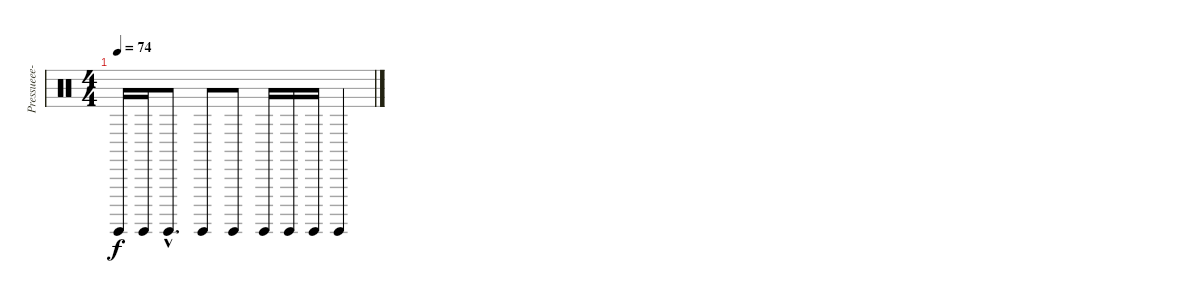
\track ("" "Pressueee-") {instrument percussion}
\staff {score}
\articulation defaults
\ts (4 4)
\tempo 74
\clef neutral
\ks c "Surdo (hit)".16{dy f} "Surdo (hit)".16 "Surdo (hit)"{hac}.8{d} "Surdo (hit)".8 "Surdo (hit)".8 "Surdo (hit)".16 "Surdo (hit)".16 "Surdo (hit)".16 "Surdo (hit)".4
